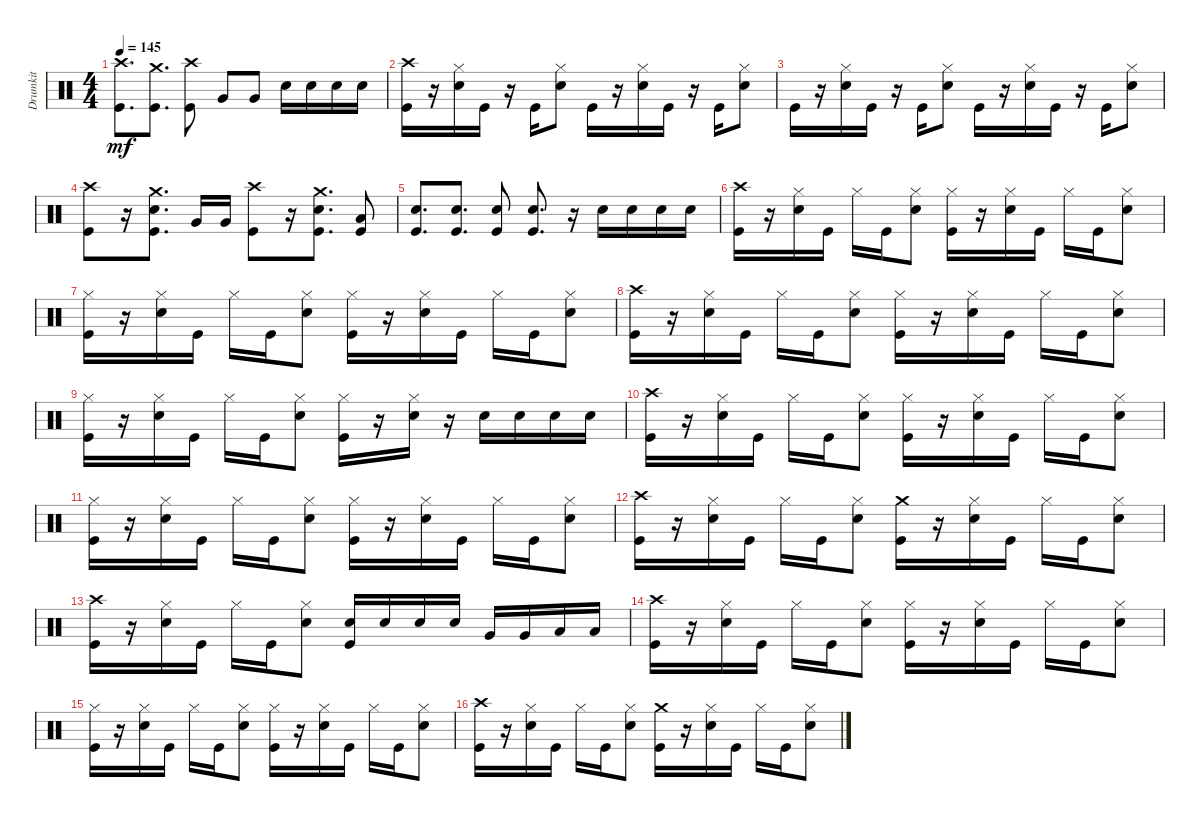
\track ("Drumkit" "Drumkit") {instrument percussion}
\staff {score}
\articulation defaults
\ts (4 4)
\tempo 145
\clef neutral
\ks c
("Kick (hit)" "Crash high (hit)").8{d dy mf} ("Crash medium (hit)" "Kick (hit)").8{d} ("Kick (hit)" "Crash high (hit)").8 "Very Low Tom (hit)".8 "Very Low Tom (hit)".8 "Snare (hit) 2".16 "Snare (hit) 2".16 "Snare (hit) 2".16 "Snare (hit) 2".16 |
("Crash high (hit)" "Kick (hit)").16 r.16 ("Snare (hit) 2" "Hi-Hat (closed)").16 "Kick (hit)".16 r.16 "Kick (hit)".16 ("Snare (hit) 2" "Hi-Hat (closed)").8 "Kick (hit)".16 r.16 ("Snare (hit) 2" "Hi-Hat (closed)").16 "Kick (hit)".16 r.16 "Kick (hit)".16 ("Snare (hit) 2" "Hi-Hat (closed)").8 |
"Kick (hit)".16 r.16 ("Snare (hit) 2" "Hi-Hat (closed)").16 "Kick (hit)".16 r.16 "Kick (hit)".16 ("Snare (hit) 2" "Hi-Hat (closed)").8 "Kick (hit)".16 r.16 ("Snare (hit) 2" "Hi-Hat (closed)").16 "Kick (hit)".16 r.16 "Kick (hit)".16 ("Snare (hit) 2" "Hi-Hat (closed)").8 |
("Crash high (hit)" "Kick (hit)").8 r.16 ("Snare (hit) 2" "Crash medium (hit)" "Kick (hit)").8{d} "Very Low Tom (hit)".16 "Very Low Tom (hit)".16 ("Crash high (hit)" "Kick (hit)").8 r.16 ("Snare (hit) 2" "Crash medium (hit)" "Kick (hit)").8{d} ("Kick (hit)" "Low Floor Tom (hit)").8 |
("Kick (hit)" "Snare (hit) 2").8{d} ("Snare (hit) 2" "Kick (hit)").8{d} ("Snare (hit) 2" "Kick (hit)").8 ("Kick (hit)" "Snare (hit) 2").8{d} r.16 "Snare (hit) 2".16 "Snare (hit) 2".16 "Snare (hit) 2".16 "Snare (hit) 2".16 |
("Crash high (hit)" "Kick (hit)").16 r.16 ("Snare (hit) 2" "Hi-Hat (closed)").16 "Kick (hit)".16 "Hi-Hat (closed)".16 "Kick (hit)".16 ("Snare (hit) 2" "Hi-Hat (closed)").8 ("Kick (hit)" "Hi-Hat (closed)").16 r.16 ("Snare (hit) 2" "Hi-Hat (closed)").16 "Kick (hit)".16 "Hi-Hat (closed)".16 "Kick (hit)".16 ("Snare (hit) 2" "Hi-Hat (closed)").8 |
("Kick (hit)" "Hi-Hat (closed)").16 r.16 ("Snare (hit) 2" "Hi-Hat (closed)").16 "Kick (hit)".16 "Hi-Hat (closed)".16 "Kick (hit)".16 ("Snare (hit) 2" "Hi-Hat (closed)").8 ("Kick (hit)" "Hi-Hat (closed)").16 r.16 ("Snare (hit) 2" "Hi-Hat (closed)").16 "Kick (hit)".16 "Hi-Hat (closed)".16 "Kick (hit)".16 ("Snare (hit) 2" "Hi-Hat (closed)").8 |
("Crash high (hit)" "Kick (hit)").16 r.16 ("Snare (hit) 2" "Hi-Hat (closed)").16 "Kick (hit)".16 "Hi-Hat (closed)".16 "Kick (hit)".16 ("Snare (hit) 2" "Hi-Hat (closed)").8 ("Kick (hit)" "Hi-Hat (closed)").16 r.16 ("Snare (hit) 2" "Hi-Hat (closed)").16 "Kick (hit)".16 "Hi-Hat (closed)".16 "Kick (hit)".16 ("Snare (hit) 2" "Hi-Hat (closed)").8 |
("Kick (hit)" "Hi-Hat (closed)").16 r.16 ("Snare (hit) 2" "Hi-Hat (closed)").16 "Kick (hit)".16 "Hi-Hat (closed)".16 "Kick (hit)".16 ("Snare (hit) 2" "Hi-Hat (closed)").8 ("Kick (hit)" "Hi-Hat (closed)").16 r.16 ("Snare (hit) 2" "Hi-Hat (closed)").16 r.16 "Snare (hit) 2".16 "Snare (hit) 2".16 "Snare (hit) 2".16 "Snare (hit) 2".16 |
("Crash high (hit)" "Kick (hit)").16 r.16 ("Snare (hit) 2" "Hi-Hat (closed)").16 "Kick (hit)".16 "Hi-Hat (closed)".16 "Kick (hit)".16 ("Snare (hit) 2" "Hi-Hat (closed)").8 ("Kick (hit)" "Hi-Hat (closed)").16 r.16 ("Snare (hit) 2" "Hi-Hat (closed)").16 "Kick (hit)".16 "Hi-Hat (closed)".16 "Kick (hit)".16 ("Snare (hit) 2" "Hi-Hat (closed)").8 |
("Kick (hit)" "Hi-Hat (closed)").16 r.16 ("Snare (hit) 2" "Hi-Hat (closed)").16 "Kick (hit)".16 "Hi-Hat (closed)".16 "Kick (hit)".16 ("Snare (hit) 2" "Hi-Hat (closed)").8 ("Kick (hit)" "Hi-Hat (closed)").16 r.16 ("Snare (hit) 2" "Hi-Hat (closed)").16 "Kick (hit)".16 "Hi-Hat (closed)".16 "Kick (hit)".16 ("Snare (hit) 2" "Hi-Hat (closed)").8 |
("Crash high (hit)" "Kick (hit)").16 r.16 ("Snare (hit) 2" "Hi-Hat (closed)").16 "Kick (hit)".16 "Hi-Hat (closed)".16 "Kick (hit)".16 ("Snare (hit) 2" "Hi-Hat (closed)").8 ("Kick (hit)" "Crash medium (hit)").16 r.16 ("Snare (hit) 2" "Hi-Hat (closed)").16 "Kick (hit)".16 "Hi-Hat (closed)".16 "Kick (hit)".16 ("Snare (hit) 2" "Hi-Hat (closed)").8 |
("Kick (hit)" "Crash high (hit)").16 r.16 ("Snare (hit) 2" "Hi-Hat (closed)").16 "Kick (hit)".16 "Hi-Hat (closed)".16 "Kick (hit)".16 ("Snare (hit) 2" "Hi-Hat (closed)").8 ("Kick (hit)" "Snare (hit) 2").16 "Snare (hit) 2".16 "Snare (hit) 2".16 "Snare (hit) 2".16 "Very Low Tom (hit)".16 "Very Low Tom (hit)".16 "Low Floor Tom (hit)".16 "Low Floor Tom (hit)".16 |
("Crash high (hit)" "Kick (hit)").16 r.16 ("Snare (hit) 2" "Hi-Hat (closed)").16 "Kick (hit)".16 "Hi-Hat (closed)".16 "Kick (hit)".16 ("Snare (hit) 2" "Hi-Hat (closed)").8 ("Kick (hit)" "Hi-Hat (closed)").16 r.16 ("Snare (hit) 2" "Hi-Hat (closed)").16 "Kick (hit)".16 "Hi-Hat (closed)".16 "Kick (hit)".16 ("Snare (hit) 2" "Hi-Hat (closed)").8 |
("Kick (hit)" "Hi-Hat (closed)").16 r.16 ("Snare (hit) 2" "Hi-Hat (closed)").16 "Kick (hit)".16 "Hi-Hat (closed)".16 "Kick (hit)".16 ("Snare (hit) 2" "Hi-Hat (closed)").8 ("Kick (hit)" "Hi-Hat (closed)").16 r.16 ("Snare (hit) 2" "Hi-Hat (closed)").16 "Kick (hit)".16 "Hi-Hat (closed)".16 "Kick (hit)".16 ("Snare (hit) 2" "Hi-Hat (closed)").8 |
("Crash high (hit)" "Kick (hit)").16 r.16 ("Snare (hit) 2" "Hi-Hat (closed)").16 "Kick (hit)".16 "Hi-Hat (closed)".16 "Kick (hit)".16 ("Snare (hit) 2" "Hi-Hat (closed)").8 ("Kick (hit)" "Crash medium (hit)").16 r.16 ("Snare (hit) 2" "Hi-Hat (closed)").16 "Kick (hit)".16 "Hi-Hat (closed)".16 "Kick (hit)".16 ("Snare (hit) 2" "Hi-Hat (closed)").8
